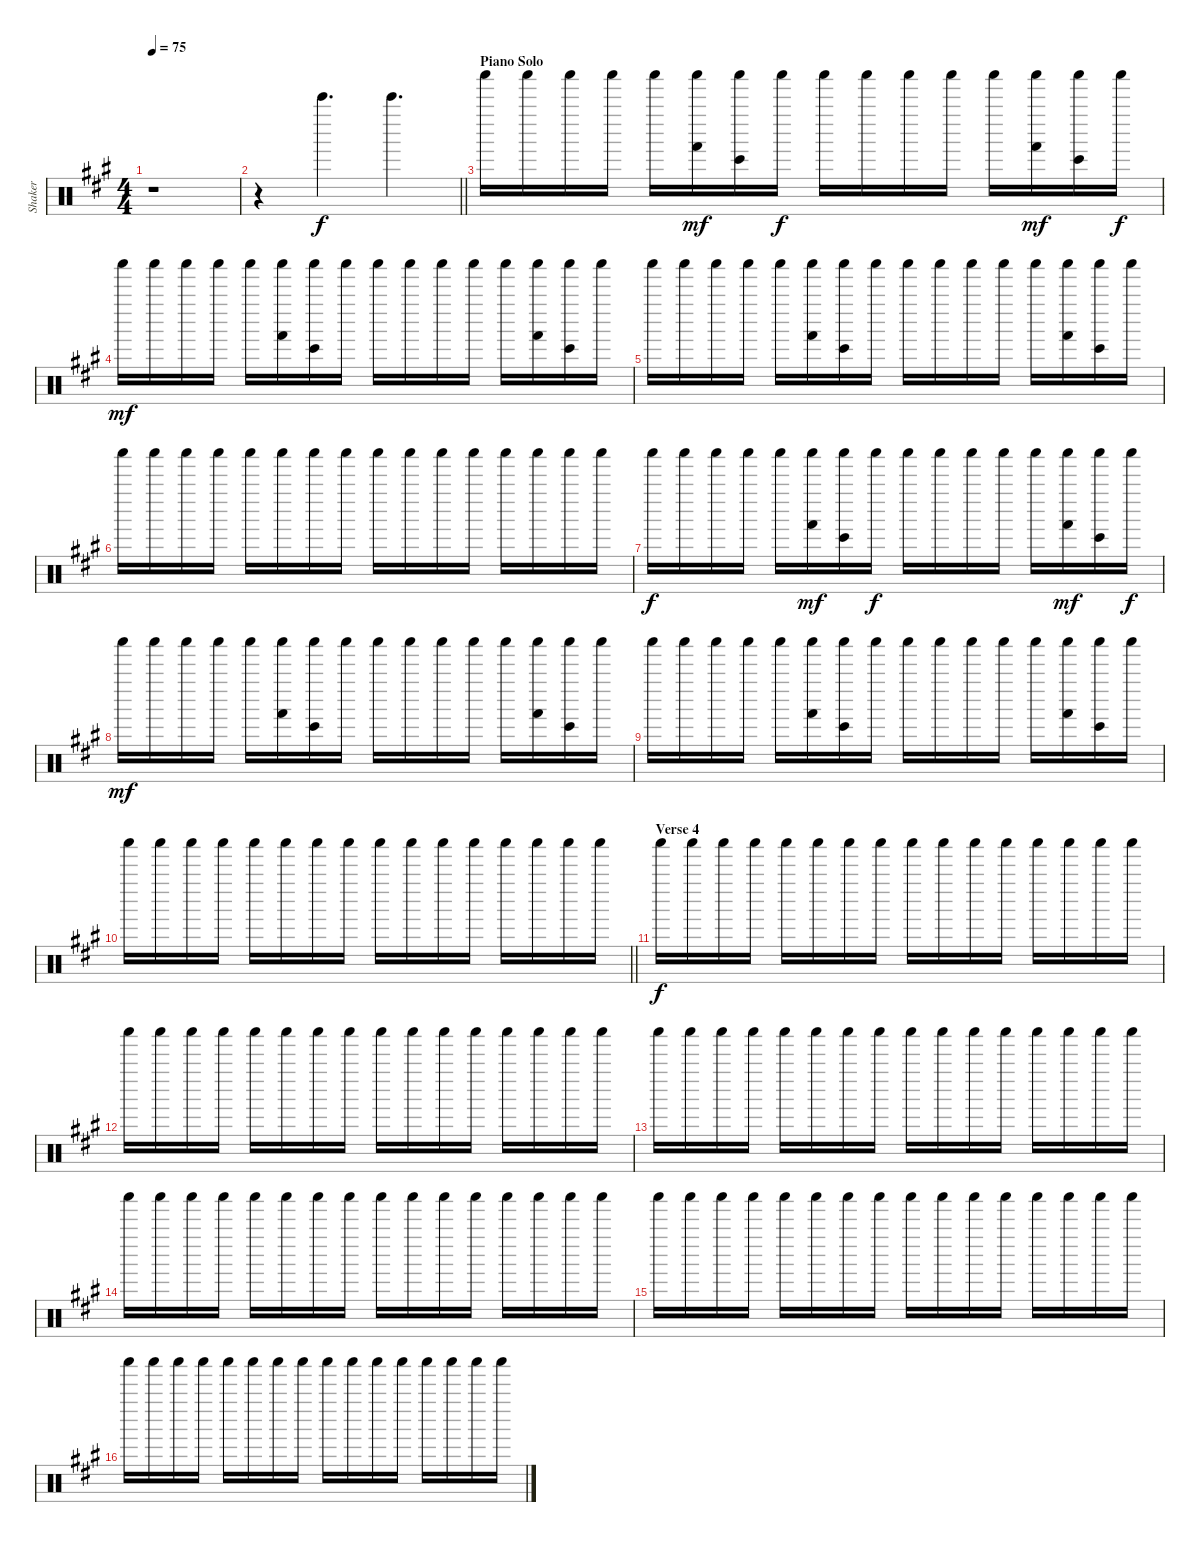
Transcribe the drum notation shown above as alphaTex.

\track ("Shaker" "Shaker") {instrument percussion}
\staff {score}
\articulation defaults
\ts (4 4)
\tempo 75
\clef neutral
\ks f#minor
r.1{dy f} |
\barLineRight lightlight
r.4 "Bell Tree (hit)".4{d} "Bell Tree (hit)".4{d} |
\section ("" "Piano Solo")
"Shaker (hit)".16 "Shaker (hit)".16 "Shaker (hit)".16 "Shaker (hit)".16 "Shaker (hit)".16 ("Shaker (hit)" "Hand (hit)").16{dy mf} ("Shaker (hit)" "Bongo High (hit)").16 "Shaker (hit)".16{dy f} "Shaker (hit)".16 "Shaker (hit)".16 "Shaker (hit)".16 "Shaker (hit)".16 "Shaker (hit)".16 ("Shaker (hit)" "Hand (hit)").16{dy mf} ("Shaker (hit)" "Bongo High (hit)").16 "Shaker (hit)".16{dy f} |
"Shaker (hit)".16{dy mf} "Shaker (hit)".16 "Shaker (hit)".16 "Shaker (hit)".16 "Shaker (hit)".16 ("Shaker (hit)" "Hand (hit)").16 ("Shaker (hit)" "Bongo High (hit)").16 "Shaker (hit)".16 "Shaker (hit)".16 "Shaker (hit)".16 "Shaker (hit)".16 "Shaker (hit)".16 "Shaker (hit)".16 ("Shaker (hit)" "Hand (hit)").16 ("Shaker (hit)" "Bongo High (hit)").16 "Shaker (hit)".16 |
"Shaker (hit)".16 "Shaker (hit)".16 "Shaker (hit)".16 "Shaker (hit)".16 "Shaker (hit)".16 ("Shaker (hit)" "Hand (hit)").16 ("Shaker (hit)" "Bongo High (hit)").16 "Shaker (hit)".16 "Shaker (hit)".16 "Shaker (hit)".16 "Shaker (hit)".16 "Shaker (hit)".16 "Shaker (hit)".16 ("Shaker (hit)" "Hand (hit)").16 ("Shaker (hit)" "Bongo High (hit)").16 "Shaker (hit)".16 |
"Shaker (hit)".16 "Shaker (hit)".16 "Shaker (hit)".16 "Shaker (hit)".16 "Shaker (hit)".16 "Shaker (hit)".16 "Shaker (hit)".16 "Shaker (hit)".16 "Shaker (hit)".16 "Shaker (hit)".16 "Shaker (hit)".16 "Shaker (hit)".16 "Shaker (hit)".16 "Shaker (hit)".16 "Shaker (hit)".16 "Shaker (hit)".16 |
"Shaker (hit)".16{dy f} "Shaker (hit)".16 "Shaker (hit)".16 "Shaker (hit)".16 "Shaker (hit)".16 ("Shaker (hit)" "Hand (hit)").16{dy mf} ("Shaker (hit)" "Bongo High (hit)").16 "Shaker (hit)".16{dy f} "Shaker (hit)".16 "Shaker (hit)".16 "Shaker (hit)".16 "Shaker (hit)".16 "Shaker (hit)".16 ("Shaker (hit)" "Hand (hit)").16{dy mf} ("Shaker (hit)" "Bongo High (hit)").16 "Shaker (hit)".16{dy f} |
"Shaker (hit)".16{dy mf} "Shaker (hit)".16 "Shaker (hit)".16 "Shaker (hit)".16 "Shaker (hit)".16 ("Shaker (hit)" "Hand (hit)").16 ("Shaker (hit)" "Bongo High (hit)").16 "Shaker (hit)".16 "Shaker (hit)".16 "Shaker (hit)".16 "Shaker (hit)".16 "Shaker (hit)".16 "Shaker (hit)".16 ("Shaker (hit)" "Hand (hit)").16 ("Shaker (hit)" "Bongo High (hit)").16 "Shaker (hit)".16 |
"Shaker (hit)".16 "Shaker (hit)".16 "Shaker (hit)".16 "Shaker (hit)".16 "Shaker (hit)".16 ("Shaker (hit)" "Hand (hit)").16 ("Shaker (hit)" "Bongo High (hit)").16 "Shaker (hit)".16 "Shaker (hit)".16 "Shaker (hit)".16 "Shaker (hit)".16 "Shaker (hit)".16 "Shaker (hit)".16 ("Shaker (hit)" "Hand (hit)").16 ("Shaker (hit)" "Bongo High (hit)").16 "Shaker (hit)".16 |
\barLineRight lightlight "Shaker (hit)".16 "Shaker (hit)".16 "Shaker (hit)".16 "Shaker (hit)".16 "Shaker (hit)".16 "Shaker (hit)".16 "Shaker (hit)".16 "Shaker (hit)".16 "Shaker (hit)".16 "Shaker (hit)".16 "Shaker (hit)".16 "Shaker (hit)".16 "Shaker (hit)".16 "Shaker (hit)".16 "Shaker (hit)".16 "Shaker (hit)".16
|
\section ("" "Verse 4")
"Shaker (hit)".16{dy f} "Shaker (hit)".16 "Shaker (hit)".16 "Shaker (hit)".16 "Shaker (hit)".16 "Shaker (hit)".16 "Shaker (hit)".16 "Shaker (hit)".16 "Shaker (hit)".16 "Shaker (hit)".16 "Shaker (hit)".16 "Shaker (hit)".16 "Shaker (hit)".16 "Shaker (hit)".16 "Shaker (hit)".16 "Shaker (hit)".16 |
"Shaker (hit)".16 "Shaker (hit)".16 "Shaker (hit)".16 "Shaker (hit)".16 "Shaker (hit)".16 "Shaker (hit)".16 "Shaker (hit)".16 "Shaker (hit)".16 "Shaker (hit)".16 "Shaker (hit)".16 "Shaker (hit)".16 "Shaker (hit)".16 "Shaker (hit)".16 "Shaker (hit)".16 "Shaker (hit)".16 "Shaker (hit)".16 |
"Shaker (hit)".16 "Shaker (hit)".16 "Shaker (hit)".16 "Shaker (hit)".16 "Shaker (hit)".16 "Shaker (hit)".16 "Shaker (hit)".16 "Shaker (hit)".16 "Shaker (hit)".16 "Shaker (hit)".16 "Shaker (hit)".16 "Shaker (hit)".16 "Shaker (hit)".16 "Shaker (hit)".16 "Shaker (hit)".16 "Shaker (hit)".16 |
"Shaker (hit)".16 "Shaker (hit)".16 "Shaker (hit)".16 "Shaker (hit)".16 "Shaker (hit)".16 "Shaker (hit)".16 "Shaker (hit)".16 "Shaker (hit)".16 "Shaker (hit)".16 "Shaker (hit)".16 "Shaker (hit)".16 "Shaker (hit)".16 "Shaker (hit)".16 "Shaker (hit)".16 "Shaker (hit)".16 "Shaker (hit)".16 |
"Shaker (hit)".16 "Shaker (hit)".16 "Shaker (hit)".16 "Shaker (hit)".16 "Shaker (hit)".16 "Shaker (hit)".16 "Shaker (hit)".16 "Shaker (hit)".16 "Shaker (hit)".16 "Shaker (hit)".16 "Shaker (hit)".16 "Shaker (hit)".16 "Shaker (hit)".16 "Shaker (hit)".16 "Shaker (hit)".16 "Shaker (hit)".16 |
"Shaker (hit)".16 "Shaker (hit)".16 "Shaker (hit)".16 "Shaker (hit)".16 "Shaker (hit)".16 "Shaker (hit)".16 "Shaker (hit)".16 "Shaker (hit)".16 "Shaker (hit)".16 "Shaker (hit)".16 "Shaker (hit)".16 "Shaker (hit)".16 "Shaker (hit)".16 "Shaker (hit)".16 "Shaker (hit)".16 "Shaker (hit)".16
